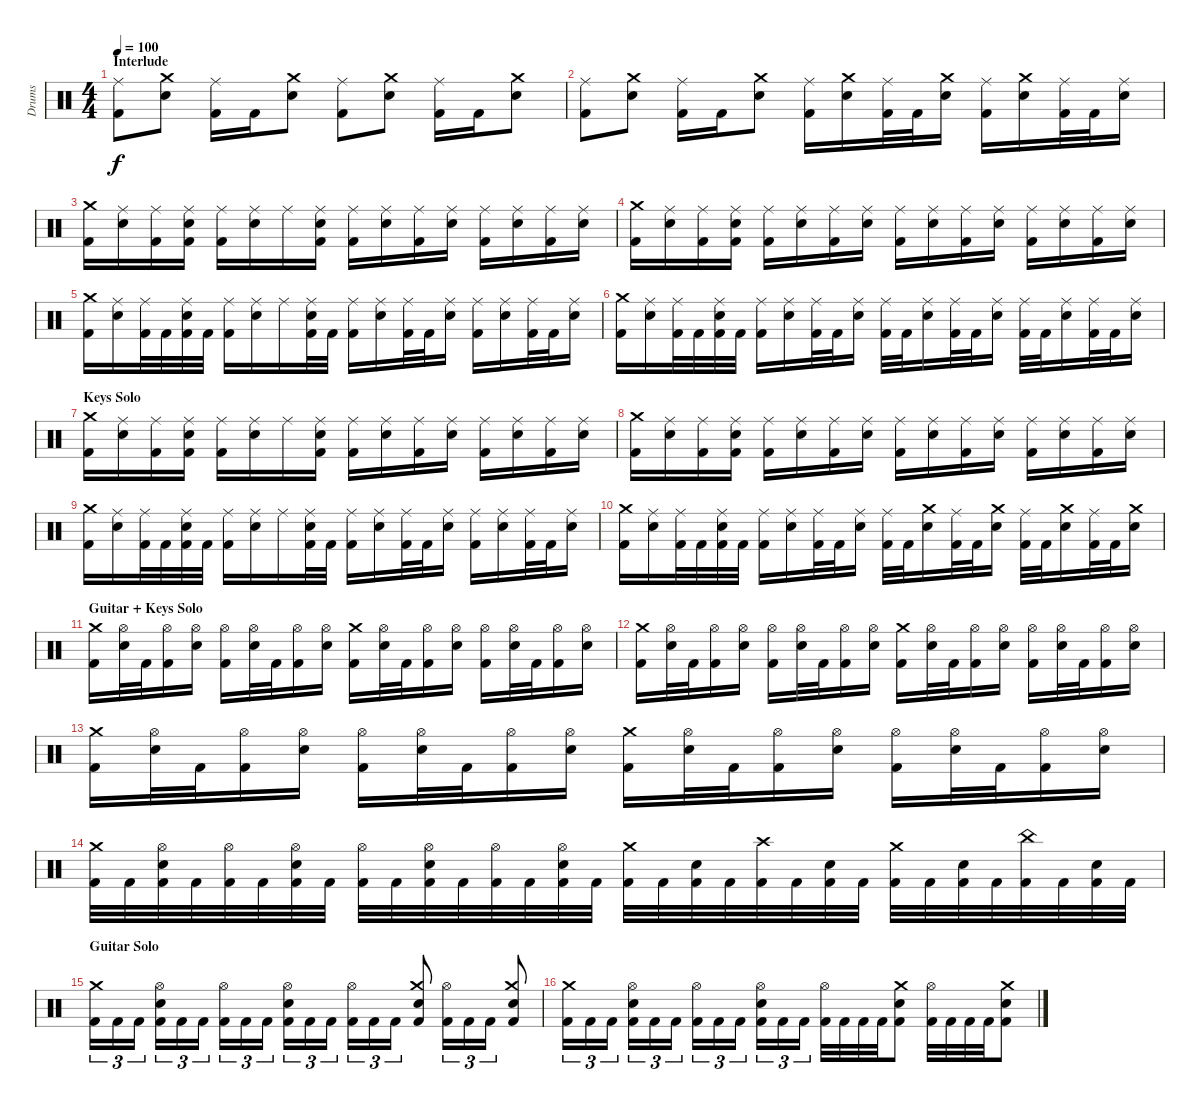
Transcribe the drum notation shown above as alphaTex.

\track ("Drums" "Drums") {instrument percussion}
\staff {score}
\articulation defaults
\ts (4 4)
\section ("" "Interlude")
\tempo 100
\clef neutral
\ks c
("Ride (middle)" "Kick (hit) 2").8{dy f} ("Crash medium (hit)" "Electric Snare (hit)").8 ("Ride (middle)" "Kick (hit) 2").16 "Kick (hit) 2".16 ("Crash medium (hit)" "Electric Snare (hit)").8 ("Ride (middle)" "Kick (hit) 2").8 ("Crash medium (hit)" "Electric Snare (hit)").8 ("Ride (middle)" "Kick (hit) 2").16 "Kick (hit) 2".16 ("Crash medium (hit)" "Electric Snare (hit)").8 |
("Ride (middle)" "Kick (hit) 2").8 ("Crash medium (hit)" "Electric Snare (hit)").8 ("Ride (middle)" "Kick (hit) 2").16 "Kick (hit) 2".16 ("Crash medium (hit)" "Electric Snare (hit)").8 ("Ride (middle)" "Kick (hit) 2").16 ("Crash medium (hit)" "Electric Snare (hit)").16 ("Ride (middle)" "Kick (hit) 2").32 "Kick (hit) 2".32 ("Crash medium (hit)" "Electric Snare (hit)").16 ("Ride (middle)" "Kick (hit) 2").16 ("Crash medium (hit)" "Electric Snare (hit)").16 ("Ride (middle)" "Kick (hit) 2").32 "Kick (hit) 2".32 ("Ride (middle)" "Electric Snare (hit)").16 |
("Crash medium (hit)" "Kick (hit) 2").16 ("Ride (middle)" "Electric Snare (hit)").16 ("Ride (middle)" "Kick (hit) 2").16 ("Ride (middle)" "Electric Snare (hit)" "Kick (hit) 2").16 ("Ride (middle)" "Kick (hit) 2").16 ("Ride (middle)" "Electric Snare (hit)").16 "Ride (middle)".16 ("Ride (middle)" "Electric Snare (hit)" "Kick (hit) 2").16 ("Ride (middle)" "Kick (hit) 2").16 ("Ride (middle)" "Electric Snare (hit)").16 ("Ride (middle)" "Kick (hit) 2").16 ("Ride (middle)" "Electric Snare (hit)").16 ("Ride (middle)" "Kick (hit) 2").16 ("Ride (middle)" "Electric Snare (hit)").16 ("Ride (middle)" "Kick (hit) 2").16 ("Ride (middle)" "Electric Snare (hit)").16 |
("Crash medium (hit)" "Kick (hit) 2").16 ("Ride (middle)" "Electric Snare (hit)").16 ("Ride (middle)" "Kick (hit) 2").16 ("Ride (middle)" "Electric Snare (hit)" "Kick (hit) 2").16 ("Ride (middle)" "Kick (hit) 2").16 ("Ride (middle)" "Electric Snare (hit)").16 ("Ride (middle)" "Kick (hit) 2").16 ("Ride (middle)" "Electric Snare (hit)").16 ("Ride (middle)" "Kick (hit) 2").16 ("Ride (middle)" "Electric Snare (hit)").16 ("Ride (middle)" "Kick (hit) 2").16 ("Ride (middle)" "Electric Snare (hit)").16 ("Ride (middle)" "Kick (hit) 2").16 ("Ride (middle)" "Electric Snare (hit)").16 ("Ride (middle)" "Kick (hit) 2").16 ("Ride (middle)" "Electric Snare (hit)").16 |
("Crash medium (hit)" "Kick (hit) 2").16 ("Ride (middle)" "Electric Snare (hit)").16 ("Ride (middle)" "Kick (hit) 2").32 "Kick (hit) 2".32 ("Ride (middle)" "Electric Snare (hit)" "Kick (hit) 2").32 "Kick (hit) 2".32 ("Ride (middle)" "Kick (hit) 2").16 ("Ride (middle)" "Electric Snare (hit)").16 "Ride (middle)".16 ("Ride (middle)" "Electric Snare (hit)" "Kick (hit) 2").32 "Kick (hit) 2".32 ("Ride (middle)" "Kick (hit) 2").16 ("Ride (middle)" "Electric Snare (hit)").16 ("Ride (middle)" "Kick (hit) 2").32 "Kick (hit) 2".32 ("Ride (middle)" "Electric Snare (hit)").16 ("Ride (middle)" "Kick (hit) 2").16 ("Ride (middle)" "Electric Snare (hit)").16 ("Ride (middle)" "Kick (hit) 2").32 "Kick (hit) 2".32 ("Ride (middle)" "Electric Snare (hit)").16 |
("Crash medium (hit)" "Kick (hit) 2").16 ("Ride (middle)" "Electric Snare (hit)").16 ("Ride (middle)" "Kick (hit) 2").32 "Kick (hit) 2".32 ("Ride (middle)" "Electric Snare (hit)" "Kick (hit) 2").32 "Kick (hit) 2".32 ("Ride (middle)" "Kick (hit) 2").16 ("Ride (middle)" "Electric Snare (hit)").16 ("Ride (middle)" "Kick (hit) 2").32 "Kick (hit) 2".32 ("Ride (middle)" "Electric Snare (hit)").16 ("Ride (middle)" "Kick (hit) 2").32 "Kick (hit) 2".32 ("Ride (middle)" "Electric Snare (hit)").16 ("Ride (middle)" "Kick (hit) 2").32 "Kick (hit) 2".32 ("Ride (middle)" "Electric Snare (hit)").16 ("Ride (middle)" "Kick (hit) 2").32 "Kick (hit) 2".32 ("Ride (middle)" "Electric Snare (hit)").16 ("Ride (middle)" "Kick (hit) 2").32 "Kick (hit) 2".32 ("Ride (middle)" "Electric Snare (hit)").16 |
\section ("" "Keys Solo")
("Crash medium (hit)" "Kick (hit) 2").16 ("Ride (middle)" "Electric Snare (hit)").16 ("Ride (middle)" "Kick (hit) 2").16 ("Ride (middle)" "Electric Snare (hit)" "Kick (hit) 2").16 ("Ride (middle)" "Kick (hit) 2").16 ("Ride (middle)" "Electric Snare (hit)").16 "Ride (middle)".16 ("Ride (middle)" "Electric Snare (hit)" "Kick (hit) 2").16 ("Ride (middle)" "Kick (hit) 2").16 ("Ride (middle)" "Electric Snare (hit)").16 ("Ride (middle)" "Kick (hit) 2").16 ("Ride (middle)" "Electric Snare (hit)").16 ("Ride (middle)" "Kick (hit) 2").16 ("Ride (middle)" "Electric Snare (hit)").16 ("Ride (middle)" "Kick (hit) 2").16 ("Ride (middle)" "Electric Snare (hit)").16 |
("Crash medium (hit)" "Kick (hit) 2").16 ("Ride (middle)" "Electric Snare (hit)").16 ("Ride (middle)" "Kick (hit) 2").16 ("Ride (middle)" "Electric Snare (hit)" "Kick (hit) 2").16 ("Ride (middle)" "Kick (hit) 2").16 ("Ride (middle)" "Electric Snare (hit)").16 ("Ride (middle)" "Kick (hit) 2").16 ("Ride (middle)" "Electric Snare (hit)").16 ("Ride (middle)" "Kick (hit) 2").16 ("Ride (middle)" "Electric Snare (hit)").16 ("Ride (middle)" "Kick (hit) 2").16 ("Ride (middle)" "Electric Snare (hit)").16 ("Ride (middle)" "Kick (hit) 2").16 ("Ride (middle)" "Electric Snare (hit)").16 ("Ride (middle)" "Kick (hit) 2").16 ("Ride (middle)" "Electric Snare (hit)").16 |
("Crash medium (hit)" "Kick (hit) 2").16 ("Ride (middle)" "Electric Snare (hit)").16 ("Ride (middle)" "Kick (hit) 2").32 "Kick (hit) 2".32 ("Ride (middle)" "Electric Snare (hit)" "Kick (hit) 2").32 "Kick (hit) 2".32 ("Ride (middle)" "Kick (hit) 2").16 ("Ride (middle)" "Electric Snare (hit)").16 "Ride (middle)".16 ("Ride (middle)" "Electric Snare (hit)" "Kick (hit) 2").32 "Kick (hit) 2".32 ("Ride (middle)" "Kick (hit) 2").16 ("Ride (middle)" "Electric Snare (hit)").16 ("Ride (middle)" "Kick (hit) 2").32 "Kick (hit) 2".32 ("Ride (middle)" "Electric Snare (hit)").16 ("Ride (middle)" "Kick (hit) 2").16 ("Ride (middle)" "Electric Snare (hit)").16 ("Ride (middle)" "Kick (hit) 2").32 "Kick (hit) 2".32 ("Ride (middle)" "Electric Snare (hit)").16 |
("Crash medium (hit)" "Kick (hit) 2").16 ("Ride (middle)" "Electric Snare (hit)").16 ("Ride (middle)" "Kick (hit) 2").32 "Kick (hit) 2".32 ("Ride (middle)" "Electric Snare (hit)" "Kick (hit) 2").32 "Kick (hit) 2".32 ("Ride (middle)" "Kick (hit) 2").16 ("Ride (middle)" "Electric Snare (hit)").16 ("Ride (middle)" "Kick (hit) 2").32 "Kick (hit) 2".32 ("Ride (middle)" "Electric Snare (hit)").16 ("Ride (middle)" "Kick (hit) 2").32 "Kick (hit) 2".32 ("Crash medium (hit)" "Electric Snare (hit)").16 ("Ride (middle)" "Kick (hit) 2").32 "Kick (hit) 2".32 ("Crash medium (hit)" "Electric Snare (hit)").16 ("Ride (middle)" "Kick (hit) 2").32 "Kick (hit) 2".32 ("Crash medium (hit)" "Electric Snare (hit)").16 ("Ride (middle)" "Kick (hit) 2").32 "Kick (hit) 2".32 ("Crash medium (hit)" "Electric Snare (hit)").16 |
\section ("" "Guitar + Keys Solo")
("Crash medium (hit)" "Kick (hit) 2").16 ("Hi-Hat (open)" "Electric Snare (hit)").32 "Kick (hit) 2".32 ("Hi-Hat (open)" "Kick (hit) 2").16 ("Hi-Hat (open)" "Electric Snare (hit)").16 ("Hi-Hat (open)" "Kick (hit) 2").16 ("Hi-Hat (open)" "Electric Snare (hit)").32 "Kick (hit) 2".32 ("Hi-Hat (open)" "Kick (hit) 2").16 ("Hi-Hat (open)" "Electric Snare (hit)").16 ("Crash medium (hit)" "Kick (hit) 2").16 ("Hi-Hat (open)" "Electric Snare (hit)").32 "Kick (hit) 2".32 ("Hi-Hat (open)" "Kick (hit) 2").16 ("Hi-Hat (open)" "Electric Snare (hit)").16 ("Hi-Hat (open)" "Kick (hit) 2").16 ("Hi-Hat (open)" "Electric Snare (hit)").32 "Kick (hit) 2".32 ("Hi-Hat (open)" "Kick (hit) 2").16 ("Hi-Hat (open)" "Electric Snare (hit)").16 |
("Crash medium (hit)" "Kick (hit) 2").16 ("Hi-Hat (open)" "Electric Snare (hit)").32 "Kick (hit) 2".32 ("Hi-Hat (open)" "Kick (hit) 2").16 ("Hi-Hat (open)" "Electric Snare (hit)").16 ("Hi-Hat (open)" "Kick (hit) 2").16 ("Hi-Hat (open)" "Electric Snare (hit)").32 "Kick (hit) 2".32 ("Hi-Hat (open)" "Kick (hit) 2").16 ("Hi-Hat (open)" "Electric Snare (hit)").16 ("Crash medium (hit)" "Kick (hit) 2").16 ("Hi-Hat (open)" "Electric Snare (hit)").32 "Kick (hit) 2".32 ("Hi-Hat (open)" "Kick (hit) 2").16 ("Hi-Hat (open)" "Electric Snare (hit)").16 ("Hi-Hat (open)" "Kick (hit) 2").16 ("Hi-Hat (open)" "Electric Snare (hit)").32 "Kick (hit) 2".32 ("Hi-Hat (open)" "Kick (hit) 2").16 ("Hi-Hat (open)" "Electric Snare (hit)").16 |
("Crash medium (hit)" "Kick (hit) 2").16 ("Hi-Hat (open)" "Electric Snare (hit)").32 "Kick (hit) 2".32 ("Hi-Hat (open)" "Kick (hit) 2").16 ("Hi-Hat (open)" "Electric Snare (hit)").16 ("Hi-Hat (open)" "Kick (hit) 2").16 ("Hi-Hat (open)" "Electric Snare (hit)").32 "Kick (hit) 2".32 ("Hi-Hat (open)" "Kick (hit) 2").16 ("Hi-Hat (open)" "Electric Snare (hit)").16 ("Crash medium (hit)" "Kick (hit) 2").16 ("Hi-Hat (open)" "Electric Snare (hit)").32 "Kick (hit) 2".32 ("Hi-Hat (open)" "Kick (hit) 2").16 ("Hi-Hat (open)" "Electric Snare (hit)").16 ("Hi-Hat (open)" "Kick (hit) 2").16 ("Hi-Hat (open)" "Electric Snare (hit)").32 "Kick (hit) 2".32 ("Hi-Hat (open)" "Kick (hit) 2").16 ("Hi-Hat (open)" "Electric Snare (hit)").16 |
("Crash medium (hit)" "Kick (hit) 2").32 "Kick (hit) 2".32 ("Hi-Hat (open)" "Electric Snare (hit)" "Kick (hit) 2").32 "Kick (hit) 2".32 ("Hi-Hat (open)" "Kick (hit) 2").32 "Kick (hit) 2".32 ("Hi-Hat (open)" "Electric Snare (hit)" "Kick (hit) 2").32 "Kick (hit) 2".32 ("Hi-Hat (open)" "Kick (hit) 2").32 "Kick (hit) 2".32 ("Hi-Hat (open)" "Electric Snare (hit)" "Kick (hit) 2").32 "Kick (hit) 2".32 ("Hi-Hat (open)" "Kick (hit) 2").32 "Kick (hit) 2".32 ("Hi-Hat (open)" "Electric Snare (hit)" "Kick (hit) 2").32 "Kick (hit) 2".32 ("Crash medium (hit)" "Kick (hit) 2").32 "Kick (hit) 2".32 ("Electric Snare (hit)" "Kick (hit) 2").32 "Kick (hit) 2".32 ("Crash high (hit)" "Kick (hit) 2").32 "Kick (hit) 2".32 ("Electric Snare (hit)" "Kick (hit) 2").32 "Kick (hit) 2".32 ("Crash medium (hit)" "Kick (hit) 2").32 "Kick (hit) 2".32 ("Electric Snare (hit)" "Kick (hit) 2").32 "Kick (hit) 2".32 ("China (hit)" "Kick (hit) 2").32 "Kick (hit) 2".32 ("Electric Snare (hit)" "Kick (hit) 2").32 "Kick (hit) 2".32 |
\section ("" "Guitar Solo")
("Crash medium (hit)" "Kick (hit) 2").16{tu (3 2)} "Kick (hit) 2".16{tu (3 2)} "Kick (hit) 2".16{tu (3 2)} ("Hi-Hat (open)" "Electric Snare (hit)" "Kick (hit) 2").16{tu (3 2)} "Kick (hit) 2".16{tu (3 2)} "Kick (hit) 2".16{tu (3 2)} ("Hi-Hat (open)" "Kick (hit) 2").16{tu (3 2)} "Kick (hit) 2".16{tu (3 2)} "Kick (hit) 2".16{tu (3 2)} ("Hi-Hat (open)" "Electric Snare (hit)" "Kick (hit) 2").16{tu (3 2)} "Kick (hit) 2".16{tu (3 2)} "Kick (hit) 2".16{tu (3 2)} ("Hi-Hat (open)" "Kick (hit) 2").16{tu (3 2)} "Kick (hit) 2".16{tu (3 2)} "Kick (hit) 2".16{tu (3 2)} ("Crash medium (hit)" "Electric Snare (hit)" "Kick (hit) 2").8 ("Hi-Hat (open)" "Kick (hit) 2").16{tu (3 2)} "Kick (hit) 2".16{tu (3 2)} "Kick (hit) 2".16{tu (3 2)} ("Crash medium (hit)" "Electric Snare (hit)" "Kick (hit) 2").8 |
("Crash medium (hit)" "Kick (hit) 2").16{tu (3 2)} "Kick (hit) 2".16{tu (3 2)} "Kick (hit) 2".16{tu (3 2)} ("Hi-Hat (open)" "Electric Snare (hit)" "Kick (hit) 2").16{tu (3 2)} "Kick (hit) 2".16{tu (3 2)} "Kick (hit) 2".16{tu (3 2)} ("Hi-Hat (open)" "Kick (hit) 2").16{tu (3 2)} "Kick (hit) 2".16{tu (3 2)} "Kick (hit) 2".16{tu (3 2)} ("Hi-Hat (open)" "Electric Snare (hit)" "Kick (hit) 2").16{tu (3 2)} "Kick (hit) 2".16{tu (3 2)} "Kick (hit) 2".16{tu (3 2)} ("Hi-Hat (open)" "Kick (hit) 2").32 "Kick (hit) 2".32 "Kick (hit) 2".32 "Kick (hit) 2".32 ("Crash medium (hit)" "Electric Snare (hit)" "Kick (hit) 2").8 ("Hi-Hat (open)" "Kick (hit) 2").32 "Kick (hit) 2".32 "Kick (hit) 2".32 "Kick (hit) 2".32 ("Crash medium (hit)" "Electric Snare (hit)" "Kick (hit) 2").8
